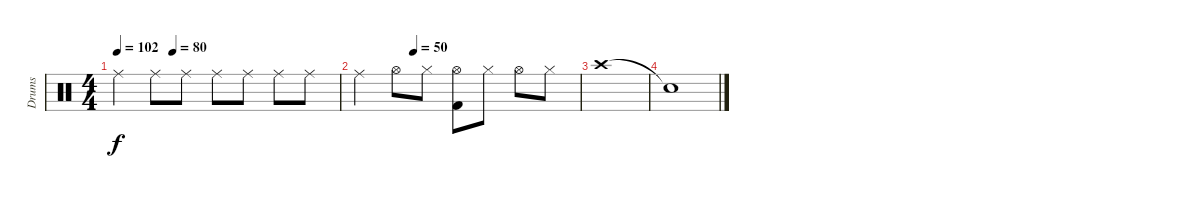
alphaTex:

\track ("Drums" "Drums") {instrument percussion}
\staff {score}
\articulation defaults
\ts (4 4)
\tempo 102
\tempo (80 0.25)
\clef neutral
\ks c "Ride (middle)".4{dy f} "Ride (middle)".8 "Ride (middle)".8 "Ride (middle)".8 "Ride (middle)".8 "Ride (middle)".8 "Ride (middle)".8
|
\tempo (50 0.25)
"Ride (middle)".4 "Hi-Hat (open)".8 "Hi-Hat (closed)".8 ("Hi-Hat (open)" "Kick (hit) 2").8 "Hi-Hat (closed)".8 "Hi-Hat (open)".8 "Hi-Hat (closed)".8 |
"Crash high (hit)".1 |
"Snare (hit)"{t}.1
